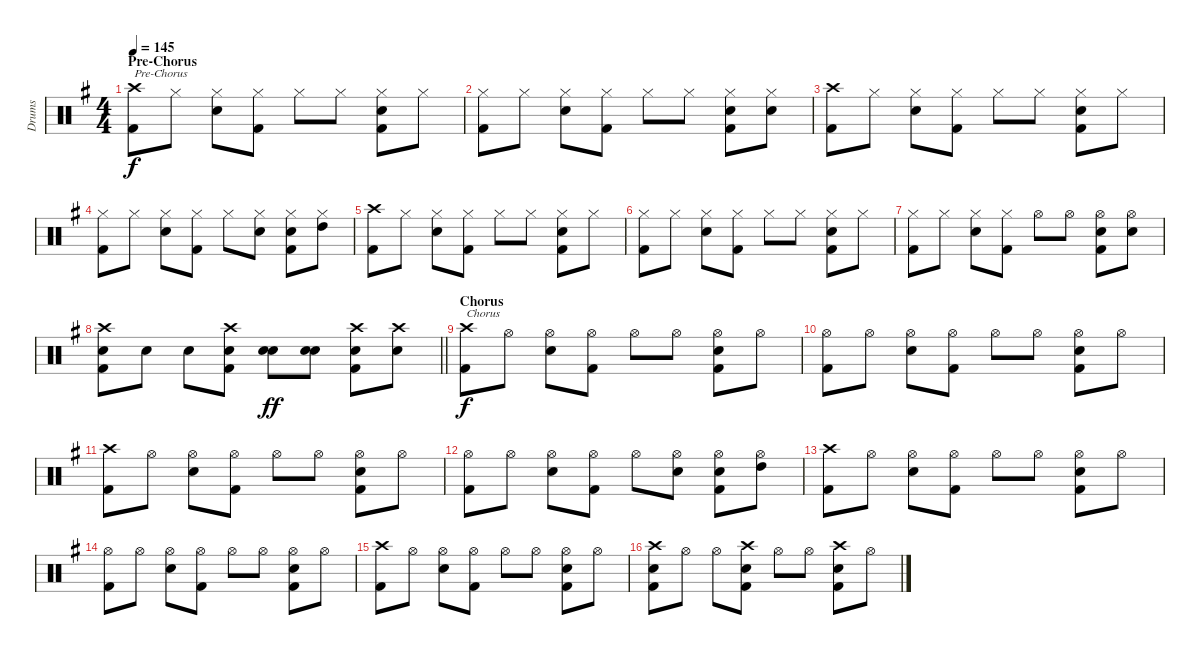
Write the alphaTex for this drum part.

\track ("Drums" "Drums") {instrument percussion}
\staff {score}
\articulation defaults
\ts (4 4)
\section ("" "Pre-Chorus")
\tempo 145
\clef neutral
\ks g
("Crash high (hit)" "Kick (hit) 2").8{txt "Pre-Chorus" dy f} "Hi-Hat (closed)".8 ("Hi-Hat (closed)" "Electric Snare (hit)").8 ("Hi-Hat (closed)" "Kick (hit) 2").8 "Hi-Hat (closed)".8 "Hi-Hat (closed)".8 ("Hi-Hat (closed)" "Electric Snare (hit)" "Kick (hit) 2").8 "Hi-Hat (closed)".8 |
("Hi-Hat (closed)" "Kick (hit) 2").8 "Hi-Hat (closed)".8 ("Hi-Hat (closed)" "Electric Snare (hit)").8 ("Hi-Hat (closed)" "Kick (hit) 2").8 "Hi-Hat (closed)".8 "Hi-Hat (closed)".8 ("Hi-Hat (closed)" "Electric Snare (hit)" "Kick (hit) 2").8 ("Hi-Hat (closed)" "Electric Snare (hit)").8 |
("Crash high (hit)" "Kick (hit) 2").8 "Hi-Hat (closed)".8 ("Hi-Hat (closed)" "Electric Snare (hit)").8 ("Hi-Hat (closed)" "Kick (hit) 2").8 "Hi-Hat (closed)".8 "Hi-Hat (closed)".8 ("Hi-Hat (closed)" "Electric Snare (hit)" "Kick (hit) 2").8 "Hi-Hat (closed)".8 |
("Hi-Hat (closed)" "Kick (hit) 2").8 "Hi-Hat (closed)".8 ("Hi-Hat (closed)" "Electric Snare (hit)").8 ("Hi-Hat (closed)" "Kick (hit) 2").8 "Hi-Hat (closed)".8 ("Hi-Hat (closed)" "Electric Snare (hit)").8 ("Hi-Hat (closed)" "Electric Snare (hit)" "Kick (hit) 2").8 ("Hi-Hat (closed)" "High Tom (hit)").8 |
("Crash high (hit)" "Kick (hit) 2").8 "Hi-Hat (closed)".8 ("Hi-Hat (closed)" "Electric Snare (hit)").8 ("Hi-Hat (closed)" "Kick (hit) 2").8 "Hi-Hat (closed)".8 "Hi-Hat (closed)".8 ("Hi-Hat (closed)" "Electric Snare (hit)" "Kick (hit) 2").8 "Hi-Hat (closed)".8 |
("Hi-Hat (closed)" "Kick (hit) 2").8 "Hi-Hat (closed)".8 ("Hi-Hat (closed)" "Electric Snare (hit)").8 ("Hi-Hat (closed)" "Kick (hit) 2").8 "Hi-Hat (closed)".8 "Hi-Hat (closed)".8 ("Hi-Hat (closed)" "Electric Snare (hit)" "Kick (hit) 2").8 "Hi-Hat (closed)".8 |
("Hi-Hat (closed)" "Kick (hit) 2").8 "Hi-Hat (closed)".8 ("Hi-Hat (closed)" "Electric Snare (hit)").8 ("Hi-Hat (closed)" "Kick (hit) 2").8 "Hi-Hat (open)".8 "Hi-Hat (open)".8 ("Hi-Hat (open)" "Electric Snare (hit)" "Kick (hit) 2").8 ("Hi-Hat (open)" "Electric Snare (hit)").8 |
\barLineRight lightlight
("Crash high (hit)" "Electric Snare (hit)" "Kick (hit) 2").8 "Electric Snare (hit)".8 "Electric Snare (hit)".8 ("Crash high (hit)" "Electric Snare (hit)" "Kick (hit) 2").8 ("Electric Snare (hit)" "Snare (hit) 2").8{dy ff} ("Electric Snare (hit)" "Snare (hit) 2").8 ("Crash high (hit)" "Electric Snare (hit)" "Kick (hit) 2").8 ("Crash high (hit)" "Electric Snare (hit)").8 |
\section ("" "Chorus")
("Crash high (hit)" "Kick (hit) 2").8{txt "Chorus" dy f} "Hi-Hat (open)".8 ("Hi-Hat (open)" "Electric Snare (hit)").8 ("Hi-Hat (open)" "Kick (hit) 2").8 "Hi-Hat (open)".8 "Hi-Hat (open)".8 ("Hi-Hat (open)" "Electric Snare (hit)" "Kick (hit) 2").8 "Hi-Hat (open)".8 |
("Hi-Hat (open)" "Kick (hit) 2").8 "Hi-Hat (open)".8 ("Hi-Hat (open)" "Electric Snare (hit)").8 ("Hi-Hat (open)" "Kick (hit) 2").8 "Hi-Hat (open)".8 "Hi-Hat (open)".8 ("Hi-Hat (open)" "Electric Snare (hit)" "Kick (hit) 2").8 "Hi-Hat (open)".8 |
("Crash high (hit)" "Kick (hit) 2").8 "Hi-Hat (open)".8 ("Hi-Hat (open)" "Electric Snare (hit)").8 ("Hi-Hat (open)" "Kick (hit) 2").8 "Hi-Hat (open)".8 "Hi-Hat (open)".8 ("Hi-Hat (open)" "Electric Snare (hit)" "Kick (hit) 2").8 "Hi-Hat (open)".8 |
("Hi-Hat (open)" "Kick (hit) 2").8 "Hi-Hat (open)".8 ("Hi-Hat (open)" "Electric Snare (hit)").8 ("Hi-Hat (open)" "Kick (hit) 2").8 "Hi-Hat (open)".8 ("Hi-Hat (open)" "Electric Snare (hit)").8 ("Hi-Hat (open)" "Electric Snare (hit)" "Kick (hit) 2").8 ("Hi-Hat (open)" "High Tom (hit)").8 |
("Crash high (hit)" "Kick (hit) 2").8 "Hi-Hat (open)".8 ("Hi-Hat (open)" "Electric Snare (hit)").8 ("Hi-Hat (open)" "Kick (hit) 2").8 "Hi-Hat (open)".8 "Hi-Hat (open)".8 ("Hi-Hat (open)" "Electric Snare (hit)" "Kick (hit) 2").8 "Hi-Hat (open)".8 |
("Hi-Hat (open)" "Kick (hit) 2").8 "Hi-Hat (open)".8 ("Hi-Hat (open)" "Electric Snare (hit)").8 ("Hi-Hat (open)" "Kick (hit) 2").8 "Hi-Hat (open)".8 "Hi-Hat (open)".8 ("Hi-Hat (open)" "Electric Snare (hit)" "Kick (hit) 2").8 "Hi-Hat (open)".8 |
("Crash high (hit)" "Kick (hit) 2").8 "Hi-Hat (open)".8 ("Hi-Hat (open)" "Electric Snare (hit)").8 ("Hi-Hat (open)" "Kick (hit) 2").8 "Hi-Hat (open)".8 "Hi-Hat (open)".8 ("Hi-Hat (open)" "Electric Snare (hit)" "Kick (hit) 2").8 "Hi-Hat (open)".8 |
("Crash high (hit)" "Electric Snare (hit)" "Kick (hit) 2").8 "Hi-Hat (open)".8 "Hi-Hat (open)".8 ("Crash high (hit)" "Electric Snare (hit)" "Kick (hit) 2").8 "Hi-Hat (open)".8 "Hi-Hat (open)".8 ("Crash high (hit)" "Electric Snare (hit)" "Kick (hit) 2").8 "Hi-Hat (open)".8
